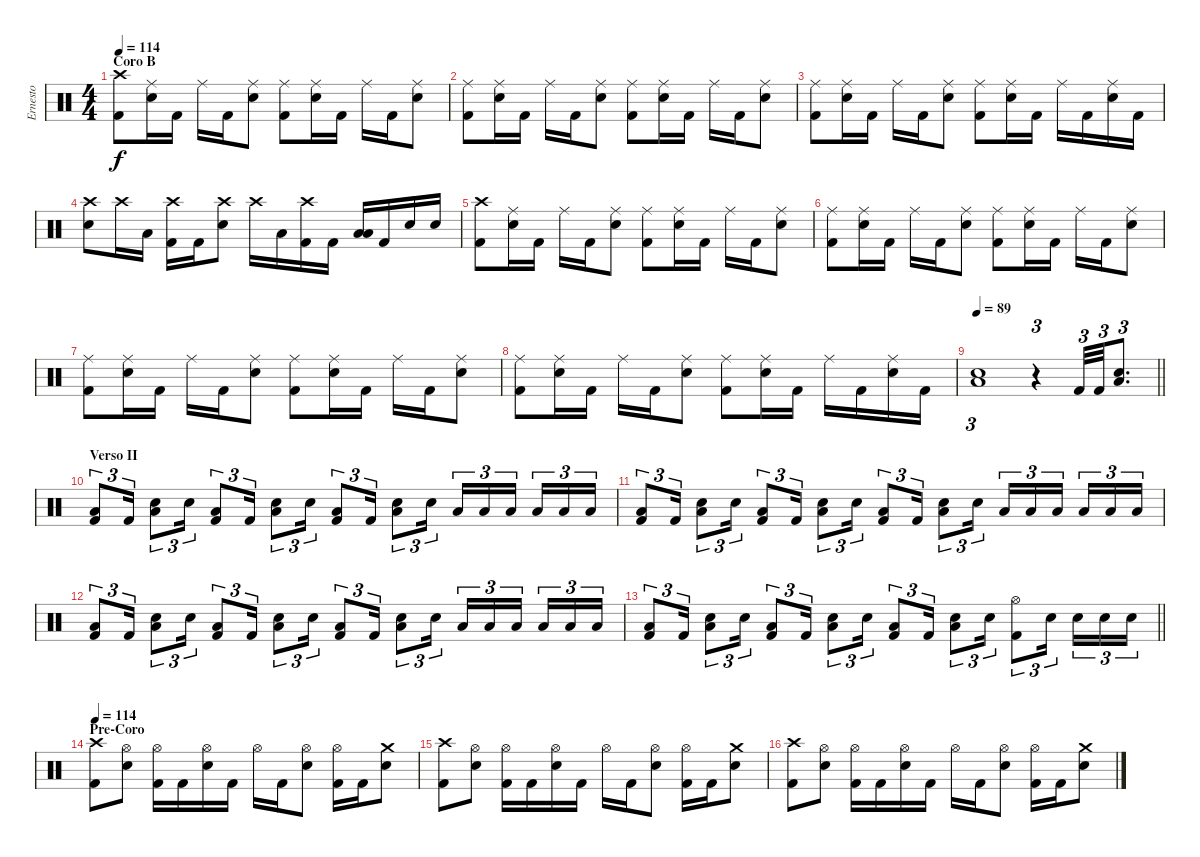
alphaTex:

\track ("Ernesto" "Ernesto") {instrument percussion}
\staff
\articulation defaults
\ts (4 4)
\section ("" "Coro B")
\tempo 114
\clef neutral
\ks c
("Crash high (hit)" "Kick (hit) 2").8{dy f} ("Ride (middle)" "Electric Snare (hit)").16 "Kick (hit) 2".16 "Ride (middle)".16 "Kick (hit) 2".16 ("Ride (middle)" "Electric Snare (hit)").8 ("Ride (middle)" "Kick (hit) 2").8 ("Ride (middle)" "Electric Snare (hit)").16 "Kick (hit) 2".16 "Ride (middle)".16 "Kick (hit) 2".16 ("Ride (middle)" "Electric Snare (hit)").8 |
("Ride (middle)" "Kick (hit) 2").8 ("Ride (middle)" "Electric Snare (hit)").16 "Kick (hit) 2".16 "Ride (middle)".16 "Kick (hit) 2".16 ("Ride (middle)" "Electric Snare (hit)").8 ("Ride (middle)" "Kick (hit) 2").8 ("Ride (middle)" "Electric Snare (hit)").16 "Kick (hit) 2".16 "Ride (middle)".16 "Kick (hit) 2".16 ("Ride (middle)" "Electric Snare (hit)").8 |
("Ride (middle)" "Kick (hit) 2").8 ("Ride (middle)" "Electric Snare (hit)").16 "Kick (hit) 2".16 "Ride (middle)".16 "Kick (hit) 2".16 ("Ride (middle)" "Electric Snare (hit)").8 ("Ride (middle)" "Kick (hit) 2").8 ("Ride (middle)" "Electric Snare (hit)").16 "Kick (hit) 2".16 "Ride (middle)".16 "Kick (hit) 2".16 ("Ride (middle)" "Electric Snare (hit)").16 "Kick (hit) 2".16 |
("Crash high (hit)" "Electric Snare (hit)").8 "Crash high (hit)".16 "Low Tom (hit)".16 ("Crash high (hit)" "Kick (hit) 2").16 "Kick (hit) 2".16 ("Crash high (hit)" "Electric Snare (hit)").8 "Crash high (hit)".16 "Low Tom (hit)".16 ("Crash high (hit)" "Kick (hit) 2").16 "Kick (hit) 2".16 ("Low Tom (hit)" "Low Floor Tom (hit)").16 "Kick (hit) 2".16 "Electric Snare (hit)".16 "Electric Snare (hit)".16 |
("Crash high (hit)" "Kick (hit) 2").8 ("Ride (middle)" "Electric Snare (hit)").16 "Kick (hit) 2".16 "Ride (middle)".16 "Kick (hit) 2".16 ("Ride (middle)" "Electric Snare (hit)").8 ("Ride (middle)" "Kick (hit) 2").8 ("Ride (middle)" "Electric Snare (hit)").16 "Kick (hit) 2".16 "Ride (middle)".16 "Kick (hit) 2".16 ("Ride (middle)" "Electric Snare (hit)").8 |
("Ride (middle)" "Kick (hit) 2").8 ("Ride (middle)" "Electric Snare (hit)").16 "Kick (hit) 2".16 "Ride (middle)".16 "Kick (hit) 2".16 ("Ride (middle)" "Electric Snare (hit)").8 ("Ride (middle)" "Kick (hit) 2").8 ("Ride (middle)" "Electric Snare (hit)").16 "Kick (hit) 2".16 "Ride (middle)".16 "Kick (hit) 2".16 ("Ride (middle)" "Electric Snare (hit)").8 |
("Ride (middle)" "Kick (hit) 2").8 ("Ride (middle)" "Electric Snare (hit)").16 "Kick (hit) 2".16 "Ride (middle)".16 "Kick (hit) 2".16 ("Ride (middle)" "Electric Snare (hit)").8 ("Ride (middle)" "Kick (hit) 2").8 ("Ride (middle)" "Electric Snare (hit)").16 "Kick (hit) 2".16 "Ride (middle)".16 "Kick (hit) 2".16 ("Ride (middle)" "Electric Snare (hit)").8 |
("Ride (middle)" "Kick (hit) 2").8 ("Ride (middle)" "Electric Snare (hit)").16 "Kick (hit) 2".16 "Ride (middle)".16 "Kick (hit) 2".16 ("Ride (middle)" "Electric Snare (hit)").8 ("Ride (middle)" "Kick (hit) 2").8 ("Ride (middle)" "Electric Snare (hit)").16 "Kick (hit) 2".16 "Ride (middle)".16 "Kick (hit) 2".16 ("Ride (middle)" "Electric Snare (hit)").16 "Kick (hit) 2".16 |
\tempo 89
\barLineRight lightlight
("Electric Snare (hit)" "Low Floor Tom (hit)").1{tu (3 2)} r.4{tu (3 2)} "Kick (hit) 2".32{tu (3 2)} "Kick (hit) 2".32{tu (3 2)} ("Electric Snare (hit)" "Low Floor Tom (hit)").8{d tu (3 2)} |
\section ("" "Verso II")
("Low Floor Tom (hit)" "Kick (hit) 2").8{tu (3 2)} "Kick (hit) 2".16{tu (3 2)} ("Electric Snare (hit)" "Low Floor Tom (hit)").8{tu (3 2)} "Electric Snare (hit)".16{tu (3 2)} ("Low Floor Tom (hit)" "Kick (hit) 2").8{tu (3 2)} "Kick (hit) 2".16{tu (3 2)} ("Electric Snare (hit)" "Low Floor Tom (hit)").8{tu (3 2)} "Electric Snare (hit)".16{tu (3 2)} ("Low Floor Tom (hit)" "Kick (hit) 2").8{tu (3 2)} "Kick (hit) 2".16{tu (3 2)} ("Electric Snare (hit)" "Low Floor Tom (hit)").8{tu (3 2)} "Electric Snare (hit)".16{tu (3 2)} "Low Tom (hit)".16{tu (3 2)} "Low Tom (hit)".16{tu (3 2)} "Low Tom (hit)".16{tu (3 2) beam splitsecondary} "Low Tom (hit)".16{tu (3 2)} "Low Floor Tom (hit)".16{tu (3 2)} "Low Floor Tom (hit)".16{tu (3 2)} |
("Low Floor Tom (hit)" "Kick (hit) 2").8{tu (3 2)} "Kick (hit) 2".16{tu (3 2)} ("Electric Snare (hit)" "Low Floor Tom (hit)").8{tu (3 2)} "Electric Snare (hit)".16{tu (3 2)} ("Low Floor Tom (hit)" "Kick (hit) 2").8{tu (3 2)} "Kick (hit) 2".16{tu (3 2)} ("Electric Snare (hit)" "Low Floor Tom (hit)").8{tu (3 2)} "Electric Snare (hit)".16{tu (3 2)} ("Low Floor Tom (hit)" "Kick (hit) 2").8{tu (3 2)} "Kick (hit) 2".16{tu (3 2)} ("Electric Snare (hit)" "Low Floor Tom (hit)").8{tu (3 2)} "Electric Snare (hit)".16{tu (3 2)} "Low Tom (hit)".16{tu (3 2)} "Low Tom (hit)".16{tu (3 2)} "Low Tom (hit)".16{tu (3 2) beam splitsecondary} "Low Tom (hit)".16{tu (3 2)} "Low Floor Tom (hit)".16{tu (3 2)} "Low Floor Tom (hit)".16{tu (3 2)} |
("Low Floor Tom (hit)" "Kick (hit) 2").8{tu (3 2)} "Kick (hit) 2".16{tu (3 2)} ("Electric Snare (hit)" "Low Floor Tom (hit)").8{tu (3 2)} "Electric Snare (hit)".16{tu (3 2)} ("Low Floor Tom (hit)" "Kick (hit) 2").8{tu (3 2)} "Kick (hit) 2".16{tu (3 2)} ("Electric Snare (hit)" "Low Floor Tom (hit)").8{tu (3 2)} "Electric Snare (hit)".16{tu (3 2)} ("Low Floor Tom (hit)" "Kick (hit) 2").8{tu (3 2)} "Kick (hit) 2".16{tu (3 2)} ("Electric Snare (hit)" "Low Floor Tom (hit)").8{tu (3 2)} "Electric Snare (hit)".16{tu (3 2)} "Low Tom (hit)".16{tu (3 2)} "Low Tom (hit)".16{tu (3 2)} "Low Tom (hit)".16{tu (3 2) beam splitsecondary} "Low Tom (hit)".16{tu (3 2)} "Low Floor Tom (hit)".16{tu (3 2)} "Low Floor Tom (hit)".16{tu (3 2)} |
\barLineRight lightlight
("Low Floor Tom (hit)" "Kick (hit) 2").8{tu (3 2)} "Kick (hit) 2".16{tu (3 2)} ("Electric Snare (hit)" "Low Floor Tom (hit)").8{tu (3 2)} "Electric Snare (hit)".16{tu (3 2)} ("Low Floor Tom (hit)" "Kick (hit) 2").8{tu (3 2)} "Kick (hit) 2".16{tu (3 2)} ("Electric Snare (hit)" "Low Floor Tom (hit)").8{tu (3 2)} "Electric Snare (hit)".16{tu (3 2)} ("Low Floor Tom (hit)" "Kick (hit) 2").8{tu (3 2)} "Kick (hit) 2".16{tu (3 2)} ("Electric Snare (hit)" "Low Floor Tom (hit)").8{tu (3 2)} "Electric Snare (hit)".16{tu (3 2)} ("Hi-Hat (open)" "Kick (hit) 2").8{tu (3 2)} "Electric Snare (hit)".16{tu (3 2) beam splitsecondary} "Electric Snare (hit)".16{tu (3 2)} "Electric Snare (hit)".16{tu (3 2)} "Electric Snare (hit)".16{tu (3 2)} |
\section ("" "Pre-Coro")
\tempo 114
("Crash high (hit)" "Kick (hit) 2").8 ("Hi-Hat (open)" "Electric Snare (hit)").8 ("Hi-Hat (open)" "Kick (hit) 2").16 "Kick (hit) 2".16 ("Hi-Hat (open)" "Electric Snare (hit)").16 "Kick (hit) 2".16 "Hi-Hat (open)".16 "Kick (hit) 2".16 ("Hi-Hat (open)" "Electric Snare (hit)").8 ("Hi-Hat (open)" "Kick (hit) 2").16 "Kick (hit) 2".16 ("Crash medium (hit)" "Electric Snare (hit)").8 |
("Crash high (hit)" "Kick (hit) 2").8 ("Hi-Hat (open)" "Electric Snare (hit)").8 ("Hi-Hat (open)" "Kick (hit) 2").16 "Kick (hit) 2".16 ("Hi-Hat (open)" "Electric Snare (hit)").16 "Kick (hit) 2".16 "Hi-Hat (open)".16 "Kick (hit) 2".16 ("Hi-Hat (open)" "Electric Snare (hit)").8 ("Hi-Hat (open)" "Kick (hit) 2").16 "Kick (hit) 2".16 ("Crash medium (hit)" "Electric Snare (hit)").8 |
("Crash high (hit)" "Kick (hit) 2").8 ("Hi-Hat (open)" "Electric Snare (hit)").8 ("Hi-Hat (open)" "Kick (hit) 2").16 "Kick (hit) 2".16 ("Hi-Hat (open)" "Electric Snare (hit)").16 "Kick (hit) 2".16 "Hi-Hat (open)".16 "Kick (hit) 2".16 ("Hi-Hat (open)" "Electric Snare (hit)").8 ("Hi-Hat (open)" "Kick (hit) 2").16 "Kick (hit) 2".16 ("Crash medium (hit)" "Electric Snare (hit)").8
